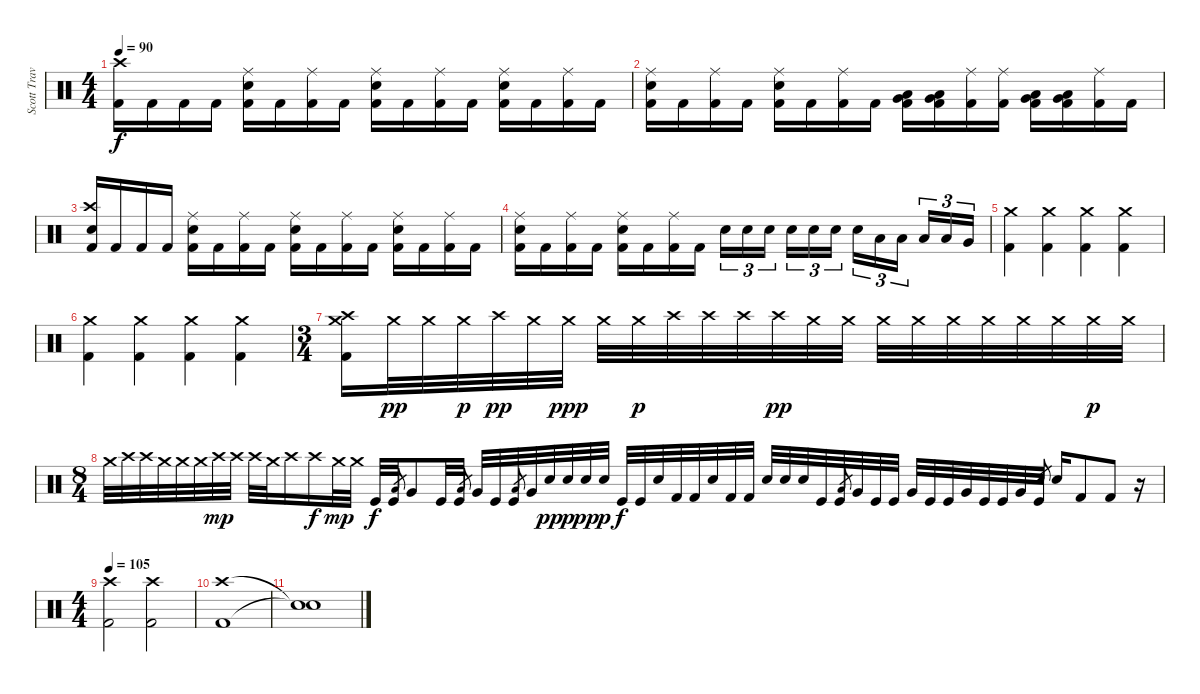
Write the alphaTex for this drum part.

\track ("Scott Travis" "Scott Trav") {instrument percussion}
\staff {score}
\articulation defaults
\ts (4 4)
\tempo 90
\clef neutral
\ks c
("Kick (hit) 2" "Crash high (hit)").16{dy f} "Kick (hit) 2".16 "Kick (hit) 2".16 "Kick (hit) 2".16 ("Kick (hit) 2" "Ride (middle)" "Electric Snare (hit)").16 "Kick (hit) 2".16 ("Kick (hit) 2" "Ride (middle)").16 "Kick (hit) 2".16 ("Kick (hit) 2" "Ride (middle)" "Electric Snare (hit)").16 "Kick (hit) 2".16 ("Kick (hit) 2" "Ride (middle)").16 "Kick (hit) 2".16 ("Kick (hit) 2" "Electric Snare (hit)" "Ride (middle)").16 "Kick (hit) 2".16 ("Kick (hit) 2" "Ride (middle)").16 "Kick (hit) 2".16 |
("Kick (hit) 2" "Ride (middle)" "Electric Snare (hit)").16 "Kick (hit) 2".16 ("Kick (hit) 2" "Ride (middle)").16 "Kick (hit) 2".16 ("Kick (hit) 2" "Ride (middle)" "Electric Snare (hit)").16 "Kick (hit) 2".16 ("Kick (hit) 2" "Ride (middle)").16 "Kick (hit) 2".16 ("Kick (hit) 2" "Low Tom (hit)" "Very Low Tom (hit)").16 ("Kick (hit) 2" "Low Tom (hit)" "Very Low Tom (hit)").16 ("Kick (hit) 2" "Ride (middle)").16 ("Kick (hit) 2" "Ride (middle)").16 ("Kick (hit) 2" "Low Tom (hit)" "Very Low Tom (hit)").16 ("Kick (hit) 2" "Low Tom (hit)" "Very Low Tom (hit)").16 ("Kick (hit) 2" "Ride (middle)").16 "Kick (hit) 2".16 |
("Electric Snare (hit)" "Kick (hit) 2" "Crash high (hit)").16 "Kick (hit) 2".16 "Kick (hit) 2".16 "Kick (hit) 2".16 ("Kick (hit) 2" "Ride (middle)" "Electric Snare (hit)").16 "Kick (hit) 2".16 ("Kick (hit) 2" "Ride (middle)").16 "Kick (hit) 2".16 ("Kick (hit) 2" "Ride (middle)" "Electric Snare (hit)").16 "Kick (hit) 2".16 ("Kick (hit) 2" "Ride (middle)").16 "Kick (hit) 2".16 ("Kick (hit) 2" "Electric Snare (hit)" "Ride (middle)").16 "Kick (hit) 2".16 ("Kick (hit) 2" "Ride (middle)").16 "Kick (hit) 2".16 |
("Kick (hit) 2" "Ride (middle)" "Electric Snare (hit)").16 "Kick (hit) 2".16 ("Kick (hit) 2" "Ride (middle)").16 "Kick (hit) 2".16 ("Kick (hit) 2" "Ride (middle)" "Electric Snare (hit)").16 "Kick (hit) 2".16 ("Kick (hit) 2" "Ride (middle)").16 "Kick (hit) 2".16 "Electric Snare (hit)".16{tu (3 2)} "Electric Snare (hit)".16{tu (3 2)} "Electric Snare (hit)".16{tu (3 2) beam splitsecondary} "Electric Snare (hit)".16{tu (3 2)} "Electric Snare (hit)".16{tu (3 2)} "Electric Snare (hit)".16{tu (3 2)} "Electric Snare (hit)".16{tu (3 2)} "Low Tom (hit)".16{tu (3 2)} "Low Tom (hit)".16{tu (3 2) beam splitsecondary} "Low Tom (hit)".16{tu (3 2)} "Low Tom (hit)".16{tu (3 2)} "Very Low Tom (hit)".16{tu (3 2)} |
("Kick (hit) 2" "Crash medium (hit)").4 ("Kick (hit) 2" "Crash medium (hit)").4 ("Kick (hit) 2" "Crash medium (hit)").4 ("Kick (hit) 2" "Crash medium (hit)").4 |
("Kick (hit) 2" "Crash medium (hit)").4 ("Kick (hit) 2" "Crash medium (hit)").4 ("Kick (hit) 2" "Crash medium (hit)").4 ("Kick (hit) 2" "Crash medium (hit)").4 |
\ts (3 4)
("Kick (hit) 2" "Crash medium (hit)" "Crash high (hit)").16 "Crash medium (hit)".32{dy pp} "Crash medium (hit)".32 "Crash medium (hit)".32{dy p} "Crash high (hit)".32{dy pp} "Crash medium (hit)".32 "Crash medium (hit)".32{dy ppp} "Crash medium (hit)".32 "Crash medium (hit)".32{dy p} "Crash high (hit)".32 "Crash high (hit)".32 "Crash high (hit)".32 "Crash high (hit)".32{dy pp} "Crash medium (hit)".32 "Crash medium (hit)".32 "Crash medium (hit)".32 "Crash medium (hit)".32 "Crash medium (hit)".32 "Crash medium (hit)".32 "Crash medium (hit)".32 "Crash medium (hit)".32 "Crash medium (hit)".32{dy p} "Crash medium (hit)".32 |
\ts (8 4)
"Crash medium (hit)".32 "Crash high (hit)".32 "Crash high (hit)".32 "Crash medium (hit)".32 "Crash medium (hit)".32 "Crash medium (hit)".32 "Crash high (hit)".32{dy mp} "Crash high (hit)".32 "Crash high (hit)".32 "Crash medium (hit)".32 "Crash high (hit)".16 "Crash high (hit)".16{dy f} "Crash medium (hit)".32{dy mp} "Crash medium (hit)".32 "Kick (hit)".32{dy f} "Kick (hit)".32 "Low Tom (hit)".8{gr} "Very Low Tom (hit)".8 "Kick (hit)".32 "Kick (hit)".32 "Low Tom (hit)".8{gr} "Very Low Tom (hit)".32 "Kick (hit)".32 "Kick (hit)".32 "Low Tom (hit)".8{gr} "Very Low Tom (hit)".32 "Electric Snare (hit)".32{dy pp} "Electric Snare (hit)".32{dy p} "Electric Snare (hit)".32{dy pp} "Electric Snare (hit)".32{dy p} "Kick (hit)".32{dy f} "Kick (hit)".32 "Electric Snare (hit)".32 "Kick (hit) 2".32 "Kick (hit) 2".32 "Electric Snare (hit)".32 "Kick (hit) 2".32 "Kick (hit) 2".32 "Electric Snare (hit)".32 "Electric Snare (hit)".32 "Electric Snare (hit)".32 "Kick (hit)".32 "Kick (hit)".32 "Low Tom (hit)".8{gr} "Very Low Tom (hit)".32 "Kick (hit)".32 "Kick (hit)".32 "Very Low Tom (hit)".32 "Kick (hit)".32 "Kick (hit)".32 "Very Low Tom (hit)".32 "Kick (hit)".32 "Kick (hit)".32 "Very Low Tom (hit)".32 "Kick (hit)".32 "Electric Snare (hit)".8{gr} "Electric Snare (hit)".16 "Kick (hit) 2".8 "Kick (hit) 2".8 r.16 |
\ts (4 4)
\tempo 105
("Kick (hit) 2" "Crash high (hit)").2 ("Kick (hit) 2" "Crash high (hit)").2 |
("Kick (hit) 2" "Crash high (hit)").1 |
("Snare (hit)"{t} "Snare (hit)"{t}).1
